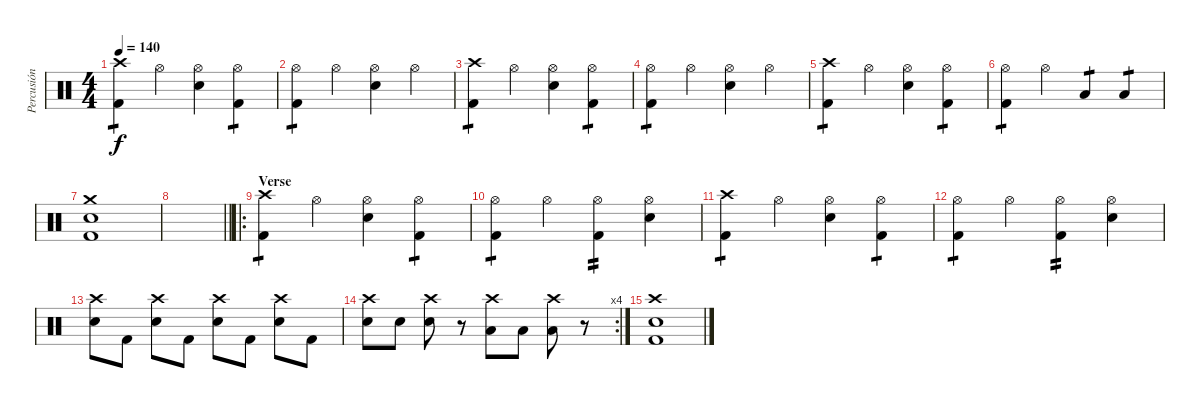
\track ("Percusión" "Percusión") {instrument percussion}
\staff {score}
\articulation defaults
\ts (4 4)
\tempo 140
\clef neutral
\ks c
("Crash high (hit)" "Kick (hit) 2").4{tp 1 dy f} "Hi-Hat (open)".4 ("Hi-Hat (open)" "Electric Snare (hit)").4 ("Hi-Hat (open)" "Kick (hit) 2").4{tp 1} |
("Hi-Hat (open)" "Kick (hit) 2").4{tp 1} "Hi-Hat (open)".4 ("Hi-Hat (open)" "Electric Snare (hit)").4 "Hi-Hat (open)".4 |
("Crash high (hit)" "Kick (hit) 2").4{tp 1} "Hi-Hat (open)".4 ("Hi-Hat (open)" "Electric Snare (hit)").4 ("Hi-Hat (open)" "Kick (hit) 2").4{tp 1} |
("Hi-Hat (open)" "Kick (hit) 2").4{tp 1} "Hi-Hat (open)".4 ("Hi-Hat (open)" "Electric Snare (hit)").4 "Hi-Hat (open)".4 |
("Crash high (hit)" "Kick (hit) 2").4{tp 1} "Hi-Hat (open)".4 ("Hi-Hat (open)" "Electric Snare (hit)").4 ("Hi-Hat (open)" "Kick (hit) 2").4{tp 1} |
("Hi-Hat (open)" "Kick (hit) 2").4{tp 1} "Hi-Hat (open)".4 "Low Tom (hit)".4{tp 1} "Low Tom (hit)".4{tp 1} |
("Crash medium (hit)" "Electric Snare (hit)" "Kick (hit) 2").1 |
\barLineRight lightlight
|
\ro
\section ("" "Verse")
("Crash high (hit)" "Kick (hit) 2").4{tp 1} "Hi-Hat (open)".4 ("Hi-Hat (open)" "Electric Snare (hit)").4 ("Hi-Hat (open)" "Kick (hit) 2").4{tp 1} |
("Hi-Hat (open)" "Kick (hit) 2").4{tp 1} "Hi-Hat (open)".4 ("Hi-Hat (open)" "Kick (hit) 2").4{tp 2} ("Hi-Hat (open)" "Electric Snare (hit)").4 |
("Crash high (hit)" "Kick (hit) 2").4{tp 1} "Hi-Hat (open)".4 ("Hi-Hat (open)" "Electric Snare (hit)").4 ("Hi-Hat (open)" "Kick (hit) 2").4{tp 1} |
("Hi-Hat (open)" "Kick (hit) 2").4{tp 1} "Hi-Hat (open)".4 ("Hi-Hat (open)" "Kick (hit) 2").4{tp 2} ("Hi-Hat (open)" "Electric Snare (hit)").4 |
("Crash high (hit)" "Electric Snare (hit)").8 "Kick (hit) 2".8 ("Crash high (hit)" "Electric Snare (hit)").8 "Kick (hit) 2".8 ("Crash high (hit)" "Electric Snare (hit)").8 "Kick (hit) 2".8 ("Crash high (hit)" "Electric Snare (hit)").8 "Kick (hit) 2".8 |
\rc 4
("Crash high (hit)" "Electric Snare (hit)").8 "Electric Snare (hit)".8 ("Crash high (hit)" "Electric Snare (hit)").8 r.8 ("Crash high (hit)" "Low Tom (hit)").8 "Low Tom (hit)".8 ("Crash high (hit)" "Low Tom (hit)").8 r.8 |
("Crash high (hit)" "Electric Snare (hit)" "Kick (hit) 2").1
